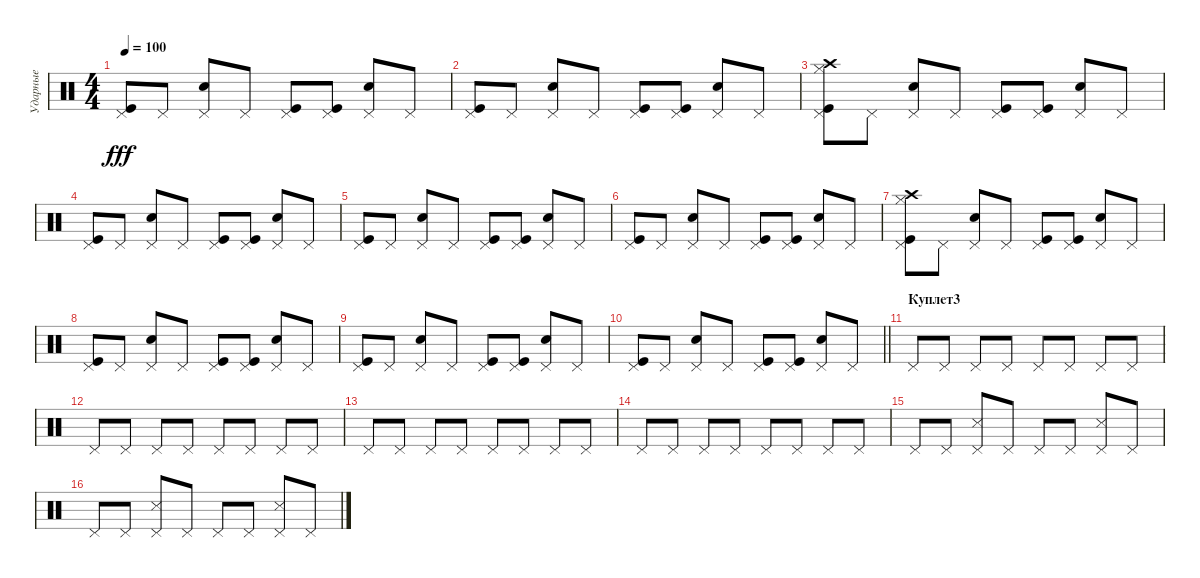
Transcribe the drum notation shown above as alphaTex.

\track ("Ударные" "Ударные") {instrument percussion}
\staff {score}
\articulation defaults
\ts (4 4)
\tempo 100
\clef neutral
\ks c
("Pedal Hi-Hat (hit)" "Kick (hit)").8{dy fff} "Pedal Hi-Hat (hit)".8 ("Pedal Hi-Hat (hit)" "Snare (hit) 2").8 "Pedal Hi-Hat (hit)".8 ("Pedal Hi-Hat (hit)" "Kick (hit)").8 ("Pedal Hi-Hat (hit)" "Kick (hit)").8 ("Pedal Hi-Hat (hit)" "Snare (hit) 2").8 "Pedal Hi-Hat (hit)".8 |
("Pedal Hi-Hat (hit)" "Kick (hit)").8 "Pedal Hi-Hat (hit)".8 ("Pedal Hi-Hat (hit)" "Snare (hit) 2").8 "Pedal Hi-Hat (hit)".8 ("Pedal Hi-Hat (hit)" "Kick (hit)").8 ("Pedal Hi-Hat (hit)" "Kick (hit)").8 ("Pedal Hi-Hat (hit)" "Snare (hit) 2").8 "Pedal Hi-Hat (hit)".8 |
("Pedal Hi-Hat (hit)" "Crash high (hit)" "Hi-Hat (closed)" "Kick (hit)").8 "Pedal Hi-Hat (hit)".8 ("Pedal Hi-Hat (hit)" "Snare (hit) 2").8 "Pedal Hi-Hat (hit)".8 ("Pedal Hi-Hat (hit)" "Kick (hit)").8 ("Pedal Hi-Hat (hit)" "Kick (hit)").8 ("Pedal Hi-Hat (hit)" "Snare (hit) 2").8 "Pedal Hi-Hat (hit)".8 |
("Pedal Hi-Hat (hit)" "Kick (hit)").8 "Pedal Hi-Hat (hit)".8 ("Pedal Hi-Hat (hit)" "Snare (hit) 2").8 "Pedal Hi-Hat (hit)".8 ("Pedal Hi-Hat (hit)" "Kick (hit)").8 ("Pedal Hi-Hat (hit)" "Kick (hit)").8 ("Pedal Hi-Hat (hit)" "Snare (hit) 2").8 "Pedal Hi-Hat (hit)".8 |
("Pedal Hi-Hat (hit)" "Kick (hit)").8 "Pedal Hi-Hat (hit)".8 ("Pedal Hi-Hat (hit)" "Snare (hit) 2").8 "Pedal Hi-Hat (hit)".8 ("Pedal Hi-Hat (hit)" "Kick (hit)").8 ("Pedal Hi-Hat (hit)" "Kick (hit)").8 ("Pedal Hi-Hat (hit)" "Snare (hit) 2").8 "Pedal Hi-Hat (hit)".8 |
("Pedal Hi-Hat (hit)" "Kick (hit)").8 "Pedal Hi-Hat (hit)".8 ("Pedal Hi-Hat (hit)" "Snare (hit) 2").8 "Pedal Hi-Hat (hit)".8 ("Pedal Hi-Hat (hit)" "Kick (hit)").8 ("Pedal Hi-Hat (hit)" "Kick (hit)").8 ("Pedal Hi-Hat (hit)" "Snare (hit) 2").8 "Pedal Hi-Hat (hit)".8 |
("Pedal Hi-Hat (hit)" "Crash high (hit)" "Hi-Hat (closed)" "Kick (hit)").8 "Pedal Hi-Hat (hit)".8 ("Pedal Hi-Hat (hit)" "Snare (hit) 2").8 "Pedal Hi-Hat (hit)".8 ("Pedal Hi-Hat (hit)" "Kick (hit)").8 ("Pedal Hi-Hat (hit)" "Kick (hit)").8 ("Pedal Hi-Hat (hit)" "Snare (hit) 2").8 "Pedal Hi-Hat (hit)".8 |
("Pedal Hi-Hat (hit)" "Kick (hit)").8 "Pedal Hi-Hat (hit)".8 ("Pedal Hi-Hat (hit)" "Snare (hit) 2").8 "Pedal Hi-Hat (hit)".8 ("Pedal Hi-Hat (hit)" "Kick (hit)").8 ("Pedal Hi-Hat (hit)" "Kick (hit)").8 ("Pedal Hi-Hat (hit)" "Snare (hit) 2").8 "Pedal Hi-Hat (hit)".8 |
("Pedal Hi-Hat (hit)" "Kick (hit)").8 "Pedal Hi-Hat (hit)".8 ("Pedal Hi-Hat (hit)" "Snare (hit) 2").8 "Pedal Hi-Hat (hit)".8 ("Pedal Hi-Hat (hit)" "Kick (hit)").8 ("Pedal Hi-Hat (hit)" "Kick (hit)").8 ("Pedal Hi-Hat (hit)" "Snare (hit) 2").8 "Pedal Hi-Hat (hit)".8 |
\barLineRight lightlight
("Pedal Hi-Hat (hit)" "Kick (hit)").8 "Pedal Hi-Hat (hit)".8 ("Pedal Hi-Hat (hit)" "Snare (hit) 2").8 "Pedal Hi-Hat (hit)".8 ("Pedal Hi-Hat (hit)" "Kick (hit)").8 ("Pedal Hi-Hat (hit)" "Kick (hit)").8 ("Pedal Hi-Hat (hit)" "Snare (hit) 2").8 "Pedal Hi-Hat (hit)".8 |
\section ("" "Куплет3")
"Pedal Hi-Hat (hit)".8 "Pedal Hi-Hat (hit)".8 "Pedal Hi-Hat (hit)".8 "Pedal Hi-Hat (hit)".8 "Pedal Hi-Hat (hit)".8 "Pedal Hi-Hat (hit)".8 "Pedal Hi-Hat (hit)".8 "Pedal Hi-Hat (hit)".8 |
"Pedal Hi-Hat (hit)".8 "Pedal Hi-Hat (hit)".8 "Pedal Hi-Hat (hit)".8 "Pedal Hi-Hat (hit)".8 "Pedal Hi-Hat (hit)".8 "Pedal Hi-Hat (hit)".8 "Pedal Hi-Hat (hit)".8 "Pedal Hi-Hat (hit)".8 |
"Pedal Hi-Hat (hit)".8 "Pedal Hi-Hat (hit)".8 "Pedal Hi-Hat (hit)".8 "Pedal Hi-Hat (hit)".8 "Pedal Hi-Hat (hit)".8 "Pedal Hi-Hat (hit)".8 "Pedal Hi-Hat (hit)".8 "Pedal Hi-Hat (hit)".8 |
"Pedal Hi-Hat (hit)".8 "Pedal Hi-Hat (hit)".8 "Pedal Hi-Hat (hit)".8 "Pedal Hi-Hat (hit)".8 "Pedal Hi-Hat (hit)".8 "Pedal Hi-Hat (hit)".8 "Pedal Hi-Hat (hit)".8 "Pedal Hi-Hat (hit)".8 |
"Pedal Hi-Hat (hit)".8 "Pedal Hi-Hat (hit)".8 ("Pedal Hi-Hat (hit)" "Snare (side stick) 3").8 "Pedal Hi-Hat (hit)".8 "Pedal Hi-Hat (hit)".8 "Pedal Hi-Hat (hit)".8 ("Pedal Hi-Hat (hit)" "Snare (side stick) 3").8 "Pedal Hi-Hat (hit)".8 |
"Pedal Hi-Hat (hit)".8 "Pedal Hi-Hat (hit)".8 ("Pedal Hi-Hat (hit)" "Snare (side stick) 3").8 "Pedal Hi-Hat (hit)".8 "Pedal Hi-Hat (hit)".8 "Pedal Hi-Hat (hit)".8 ("Pedal Hi-Hat (hit)" "Snare (side stick) 3").8 "Pedal Hi-Hat (hit)".8
